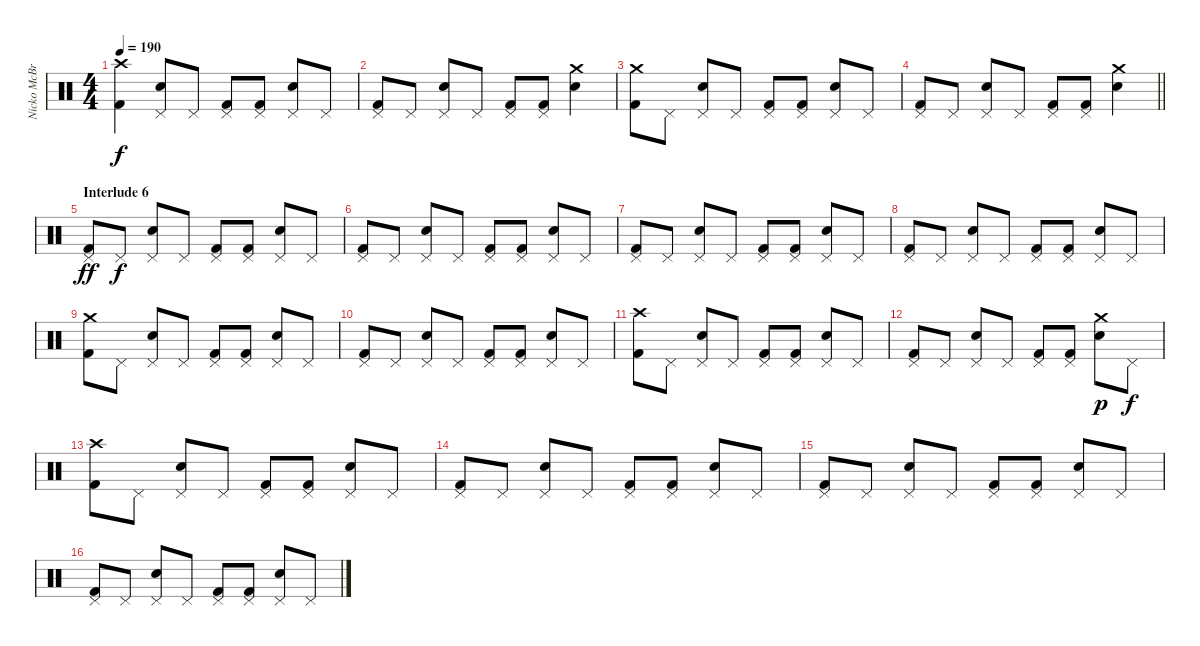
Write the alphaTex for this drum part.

\track ("Nicko McBrain" "Nicko McBr") {instrument percussion}
\staff {score}
\articulation defaults
\ts (4 4)
\tempo 190
\clef neutral
\ks c
("Crash high (hit)" "Kick (hit) 2").4{dy f} ("Pedal Hi-Hat (hit)" "Electric Snare (hit)").8 "Pedal Hi-Hat (hit)".8 ("Pedal Hi-Hat (hit)" "Kick (hit) 2").8 ("Pedal Hi-Hat (hit)" "Kick (hit) 2").8 ("Pedal Hi-Hat (hit)" "Electric Snare (hit)").8 "Pedal Hi-Hat (hit)".8 |
("Pedal Hi-Hat (hit)" "Kick (hit) 2").8 "Pedal Hi-Hat (hit)".8 ("Pedal Hi-Hat (hit)" "Electric Snare (hit)").8 "Pedal Hi-Hat (hit)".8 ("Pedal Hi-Hat (hit)" "Kick (hit) 2").8 ("Pedal Hi-Hat (hit)" "Kick (hit) 2").8 ("Crash medium (hit)" "Electric Snare (hit)").4 |
("Crash medium (hit)" "Kick (hit) 2").8 "Pedal Hi-Hat (hit)".8 ("Pedal Hi-Hat (hit)" "Electric Snare (hit)").8 "Pedal Hi-Hat (hit)".8 ("Pedal Hi-Hat (hit)" "Kick (hit) 2").8 ("Pedal Hi-Hat (hit)" "Kick (hit) 2").8 ("Pedal Hi-Hat (hit)" "Electric Snare (hit)").8 "Pedal Hi-Hat (hit)".8 |
\barLineRight lightlight
("Pedal Hi-Hat (hit)" "Kick (hit) 2").8 "Pedal Hi-Hat (hit)".8 ("Pedal Hi-Hat (hit)" "Electric Snare (hit)").8 "Pedal Hi-Hat (hit)".8 ("Pedal Hi-Hat (hit)" "Kick (hit) 2").8 ("Pedal Hi-Hat (hit)" "Kick (hit) 2").8 ("Crash medium (hit)" "Electric Snare (hit)").4 |
\section ("" "Interlude 6")
("Pedal Hi-Hat (hit)" "Kick (hit) 2").8{dy ff} "Pedal Hi-Hat (hit)".8{dy f} ("Pedal Hi-Hat (hit)" "Electric Snare (hit)").8 "Pedal Hi-Hat (hit)".8 ("Pedal Hi-Hat (hit)" "Kick (hit) 2").8 ("Pedal Hi-Hat (hit)" "Kick (hit) 2").8 ("Pedal Hi-Hat (hit)" "Electric Snare (hit)").8 "Pedal Hi-Hat (hit)".8 |
("Pedal Hi-Hat (hit)" "Kick (hit) 2").8 "Pedal Hi-Hat (hit)".8 ("Pedal Hi-Hat (hit)" "Electric Snare (hit)").8 "Pedal Hi-Hat (hit)".8 ("Pedal Hi-Hat (hit)" "Kick (hit) 2").8 ("Pedal Hi-Hat (hit)" "Kick (hit) 2").8 ("Pedal Hi-Hat (hit)" "Electric Snare (hit)").8 "Pedal Hi-Hat (hit)".8 |
("Pedal Hi-Hat (hit)" "Kick (hit) 2").8 "Pedal Hi-Hat (hit)".8 ("Pedal Hi-Hat (hit)" "Electric Snare (hit)").8 "Pedal Hi-Hat (hit)".8 ("Pedal Hi-Hat (hit)" "Kick (hit) 2").8 ("Pedal Hi-Hat (hit)" "Kick (hit) 2").8 ("Pedal Hi-Hat (hit)" "Electric Snare (hit)").8 "Pedal Hi-Hat (hit)".8 |
("Pedal Hi-Hat (hit)" "Kick (hit) 2").8 "Pedal Hi-Hat (hit)".8 ("Pedal Hi-Hat (hit)" "Electric Snare (hit)").8 "Pedal Hi-Hat (hit)".8 ("Pedal Hi-Hat (hit)" "Kick (hit) 2").8 ("Pedal Hi-Hat (hit)" "Kick (hit) 2").8 ("Pedal Hi-Hat (hit)" "Electric Snare (hit)").8 "Pedal Hi-Hat (hit)".8 |
("Crash medium (hit)" "Kick (hit) 2").8 "Pedal Hi-Hat (hit)".8 ("Pedal Hi-Hat (hit)" "Electric Snare (hit)").8 "Pedal Hi-Hat (hit)".8 ("Pedal Hi-Hat (hit)" "Kick (hit) 2").8 ("Pedal Hi-Hat (hit)" "Kick (hit) 2").8 ("Pedal Hi-Hat (hit)" "Electric Snare (hit)").8 "Pedal Hi-Hat (hit)".8 |
("Pedal Hi-Hat (hit)" "Kick (hit) 2").8 "Pedal Hi-Hat (hit)".8 ("Pedal Hi-Hat (hit)" "Electric Snare (hit)").8 "Pedal Hi-Hat (hit)".8 ("Pedal Hi-Hat (hit)" "Kick (hit) 2").8 ("Pedal Hi-Hat (hit)" "Kick (hit) 2").8 ("Pedal Hi-Hat (hit)" "Electric Snare (hit)").8 "Pedal Hi-Hat (hit)".8 |
("Crash high (hit)" "Kick (hit) 2").8 "Pedal Hi-Hat (hit)".8 ("Pedal Hi-Hat (hit)" "Electric Snare (hit)").8 "Pedal Hi-Hat (hit)".8 ("Pedal Hi-Hat (hit)" "Kick (hit) 2").8 ("Pedal Hi-Hat (hit)" "Kick (hit) 2").8 ("Pedal Hi-Hat (hit)" "Electric Snare (hit)").8 "Pedal Hi-Hat (hit)".8 |
("Pedal Hi-Hat (hit)" "Kick (hit) 2").8 "Pedal Hi-Hat (hit)".8 ("Pedal Hi-Hat (hit)" "Electric Snare (hit)").8 "Pedal Hi-Hat (hit)".8 ("Pedal Hi-Hat (hit)" "Kick (hit) 2").8 ("Pedal Hi-Hat (hit)" "Kick (hit) 2").8 ("Crash medium (hit)" "Electric Snare (hit)").8{dy p} "Pedal Hi-Hat (hit)".8{dy f} |
("Crash high (hit)" "Kick (hit) 2").8 "Pedal Hi-Hat (hit)".8 ("Pedal Hi-Hat (hit)" "Electric Snare (hit)").8 "Pedal Hi-Hat (hit)".8 ("Pedal Hi-Hat (hit)" "Kick (hit) 2").8 ("Pedal Hi-Hat (hit)" "Kick (hit) 2").8 ("Pedal Hi-Hat (hit)" "Electric Snare (hit)").8 "Pedal Hi-Hat (hit)".8 |
("Pedal Hi-Hat (hit)" "Kick (hit) 2").8 "Pedal Hi-Hat (hit)".8 ("Pedal Hi-Hat (hit)" "Electric Snare (hit)").8 "Pedal Hi-Hat (hit)".8 ("Pedal Hi-Hat (hit)" "Kick (hit) 2").8 ("Pedal Hi-Hat (hit)" "Kick (hit) 2").8 ("Pedal Hi-Hat (hit)" "Electric Snare (hit)").8 "Pedal Hi-Hat (hit)".8 |
("Pedal Hi-Hat (hit)" "Kick (hit) 2").8 "Pedal Hi-Hat (hit)".8 ("Pedal Hi-Hat (hit)" "Electric Snare (hit)").8 "Pedal Hi-Hat (hit)".8 ("Pedal Hi-Hat (hit)" "Kick (hit) 2").8 ("Pedal Hi-Hat (hit)" "Kick (hit) 2").8 ("Pedal Hi-Hat (hit)" "Electric Snare (hit)").8 "Pedal Hi-Hat (hit)".8 |
("Pedal Hi-Hat (hit)" "Kick (hit) 2").8 "Pedal Hi-Hat (hit)".8 ("Pedal Hi-Hat (hit)" "Electric Snare (hit)").8 "Pedal Hi-Hat (hit)".8 ("Pedal Hi-Hat (hit)" "Kick (hit) 2").8 ("Pedal Hi-Hat (hit)" "Kick (hit) 2").8 ("Pedal Hi-Hat (hit)" "Electric Snare (hit)").8 "Pedal Hi-Hat (hit)".8
